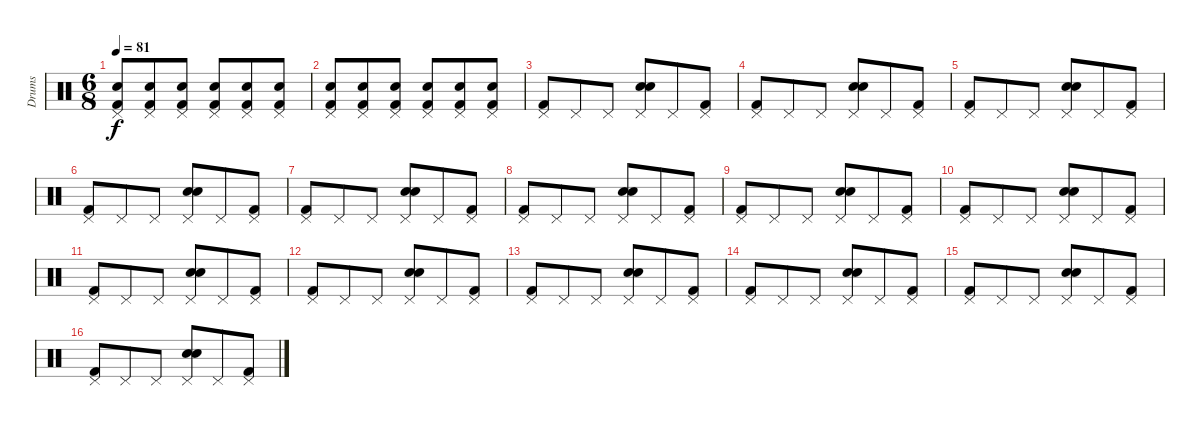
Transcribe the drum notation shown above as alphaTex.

\track ("Drums" "Drums") {instrument percussion}
\staff {score}
\articulation defaults
\ts (6 8)
\tempo 81
\clef neutral
\ks c
("Electric Snare (hit)" "Kick (hit) 2" "Pedal Hi-Hat (hit)").8{dy f} ("Electric Snare (hit)" "Kick (hit) 2" "Pedal Hi-Hat (hit)").8 ("Electric Snare (hit)" "Kick (hit) 2" "Pedal Hi-Hat (hit)").8 ("Electric Snare (hit)" "Kick (hit) 2" "Pedal Hi-Hat (hit)").8 ("Electric Snare (hit)" "Kick (hit) 2" "Pedal Hi-Hat (hit)").8 ("Electric Snare (hit)" "Kick (hit) 2" "Pedal Hi-Hat (hit)").8 |
("Electric Snare (hit)" "Kick (hit) 2" "Pedal Hi-Hat (hit)").8 ("Electric Snare (hit)" "Kick (hit) 2" "Pedal Hi-Hat (hit)").8 ("Electric Snare (hit)" "Kick (hit) 2" "Pedal Hi-Hat (hit)").8 ("Electric Snare (hit)" "Kick (hit) 2" "Pedal Hi-Hat (hit)").8 ("Electric Snare (hit)" "Kick (hit) 2" "Pedal Hi-Hat (hit)").8 ("Electric Snare (hit)" "Kick (hit) 2" "Pedal Hi-Hat (hit)").8 |
("Kick (hit) 2" "Pedal Hi-Hat (hit)").8 "Pedal Hi-Hat (hit)".8 "Pedal Hi-Hat (hit)".8 ("Electric Snare (hit)" "Snare (hit) 2" "Pedal Hi-Hat (hit)").8 "Pedal Hi-Hat (hit)".8 ("Kick (hit) 2" "Pedal Hi-Hat (hit)").8 |
("Kick (hit) 2" "Pedal Hi-Hat (hit)").8 "Pedal Hi-Hat (hit)".8 "Pedal Hi-Hat (hit)".8 ("Electric Snare (hit)" "Snare (hit) 2" "Pedal Hi-Hat (hit)").8 "Pedal Hi-Hat (hit)".8 ("Kick (hit) 2" "Pedal Hi-Hat (hit)").8 |
("Kick (hit) 2" "Pedal Hi-Hat (hit)").8 "Pedal Hi-Hat (hit)".8 "Pedal Hi-Hat (hit)".8 ("Electric Snare (hit)" "Snare (hit) 2" "Pedal Hi-Hat (hit)").8 "Pedal Hi-Hat (hit)".8 ("Kick (hit) 2" "Pedal Hi-Hat (hit)").8 |
("Kick (hit) 2" "Pedal Hi-Hat (hit)").8 "Pedal Hi-Hat (hit)".8 "Pedal Hi-Hat (hit)".8 ("Electric Snare (hit)" "Snare (hit) 2" "Pedal Hi-Hat (hit)").8 "Pedal Hi-Hat (hit)".8 ("Kick (hit) 2" "Pedal Hi-Hat (hit)").8 |
("Kick (hit) 2" "Pedal Hi-Hat (hit)").8 "Pedal Hi-Hat (hit)".8 "Pedal Hi-Hat (hit)".8 ("Electric Snare (hit)" "Snare (hit) 2" "Pedal Hi-Hat (hit)").8 "Pedal Hi-Hat (hit)".8 ("Kick (hit) 2" "Pedal Hi-Hat (hit)").8 |
("Kick (hit) 2" "Pedal Hi-Hat (hit)").8 "Pedal Hi-Hat (hit)".8 "Pedal Hi-Hat (hit)".8 ("Electric Snare (hit)" "Snare (hit) 2" "Pedal Hi-Hat (hit)").8 "Pedal Hi-Hat (hit)".8 ("Kick (hit) 2" "Pedal Hi-Hat (hit)").8 |
("Kick (hit) 2" "Pedal Hi-Hat (hit)").8 "Pedal Hi-Hat (hit)".8 "Pedal Hi-Hat (hit)".8 ("Electric Snare (hit)" "Snare (hit) 2" "Pedal Hi-Hat (hit)").8 "Pedal Hi-Hat (hit)".8 ("Kick (hit) 2" "Pedal Hi-Hat (hit)").8 |
("Kick (hit) 2" "Pedal Hi-Hat (hit)").8 "Pedal Hi-Hat (hit)".8 "Pedal Hi-Hat (hit)".8 ("Electric Snare (hit)" "Snare (hit) 2" "Pedal Hi-Hat (hit)").8 "Pedal Hi-Hat (hit)".8 ("Kick (hit) 2" "Pedal Hi-Hat (hit)").8 |
("Kick (hit) 2" "Pedal Hi-Hat (hit)").8 "Pedal Hi-Hat (hit)".8 "Pedal Hi-Hat (hit)".8 ("Electric Snare (hit)" "Snare (hit) 2" "Pedal Hi-Hat (hit)").8 "Pedal Hi-Hat (hit)".8 ("Kick (hit) 2" "Pedal Hi-Hat (hit)").8 |
("Kick (hit) 2" "Pedal Hi-Hat (hit)").8 "Pedal Hi-Hat (hit)".8 "Pedal Hi-Hat (hit)".8 ("Electric Snare (hit)" "Snare (hit) 2" "Pedal Hi-Hat (hit)").8 "Pedal Hi-Hat (hit)".8 ("Kick (hit) 2" "Pedal Hi-Hat (hit)").8 |
("Kick (hit) 2" "Pedal Hi-Hat (hit)").8 "Pedal Hi-Hat (hit)".8 "Pedal Hi-Hat (hit)".8 ("Electric Snare (hit)" "Snare (hit) 2" "Pedal Hi-Hat (hit)").8 "Pedal Hi-Hat (hit)".8 ("Kick (hit) 2" "Pedal Hi-Hat (hit)").8 |
("Kick (hit) 2" "Pedal Hi-Hat (hit)").8 "Pedal Hi-Hat (hit)".8 "Pedal Hi-Hat (hit)".8 ("Electric Snare (hit)" "Snare (hit) 2" "Pedal Hi-Hat (hit)").8 "Pedal Hi-Hat (hit)".8 ("Kick (hit) 2" "Pedal Hi-Hat (hit)").8 |
("Kick (hit) 2" "Pedal Hi-Hat (hit)").8 "Pedal Hi-Hat (hit)".8 "Pedal Hi-Hat (hit)".8 ("Electric Snare (hit)" "Snare (hit) 2" "Pedal Hi-Hat (hit)").8 "Pedal Hi-Hat (hit)".8 ("Kick (hit) 2" "Pedal Hi-Hat (hit)").8 |
("Kick (hit) 2" "Pedal Hi-Hat (hit)").8 "Pedal Hi-Hat (hit)".8 "Pedal Hi-Hat (hit)".8 ("Electric Snare (hit)" "Snare (hit) 2" "Pedal Hi-Hat (hit)").8 "Pedal Hi-Hat (hit)".8 ("Kick (hit) 2" "Pedal Hi-Hat (hit)").8
